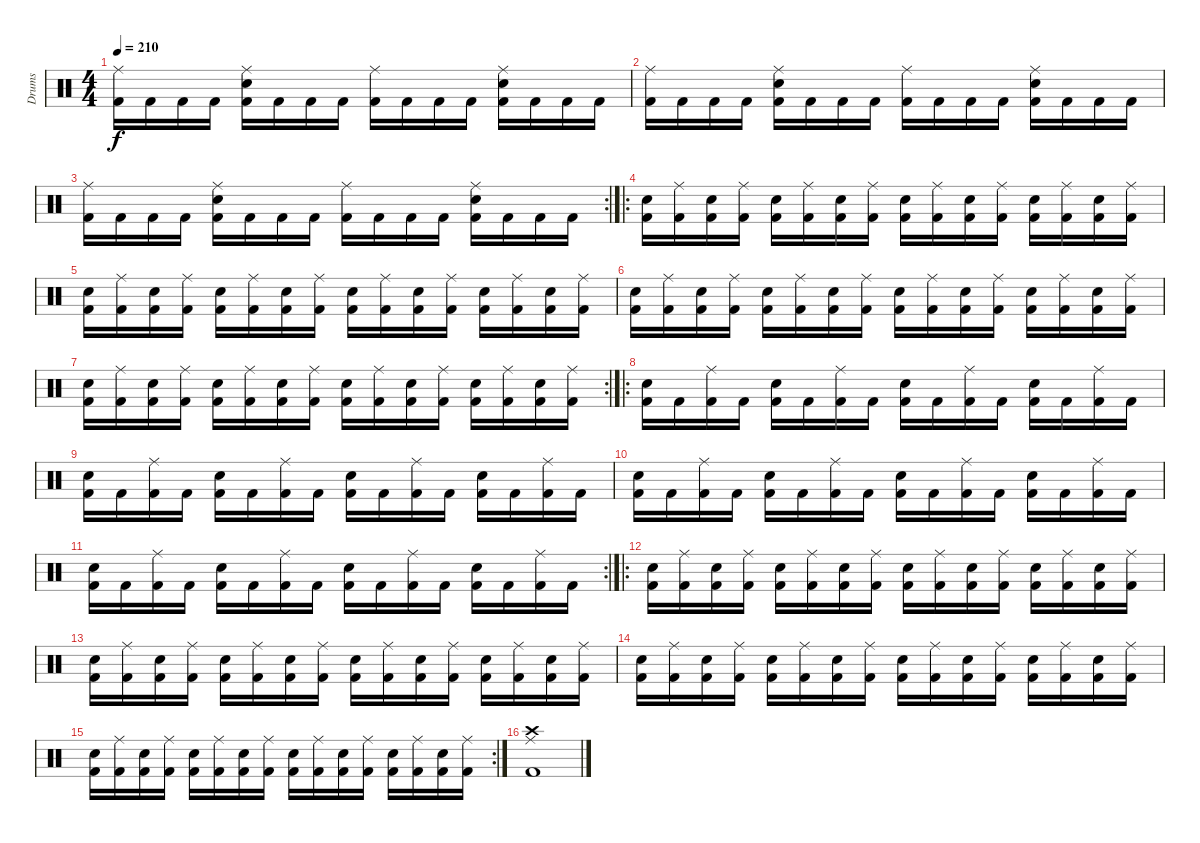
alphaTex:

\track ("Drums" "Drums") {instrument percussion}
\staff {score}
\articulation defaults
\ts (4 4)
\tempo 210
\clef neutral
\ks c
("Ride (middle)" "Kick (hit) 2").16{dy f} "Kick (hit) 2".16 "Kick (hit) 2".16 "Kick (hit) 2".16 ("Ride (middle)" "Electric Snare (hit)" "Kick (hit) 2").16 "Kick (hit) 2".16 "Kick (hit) 2".16 "Kick (hit) 2".16 ("Ride (middle)" "Kick (hit) 2").16 "Kick (hit) 2".16 "Kick (hit) 2".16 "Kick (hit) 2".16 ("Ride (middle)" "Electric Snare (hit)" "Kick (hit) 2").16 "Kick (hit) 2".16 "Kick (hit) 2".16 "Kick (hit) 2".16 |
("Ride (middle)" "Kick (hit) 2").16 "Kick (hit) 2".16 "Kick (hit) 2".16 "Kick (hit) 2".16 ("Ride (middle)" "Electric Snare (hit)" "Kick (hit) 2").16 "Kick (hit) 2".16 "Kick (hit) 2".16 "Kick (hit) 2".16 ("Ride (middle)" "Kick (hit) 2").16 "Kick (hit) 2".16 "Kick (hit) 2".16 "Kick (hit) 2".16 ("Ride (middle)" "Electric Snare (hit)" "Kick (hit) 2").16 "Kick (hit) 2".16 "Kick (hit) 2".16 "Kick (hit) 2".16 |
\rc 2
("Ride (middle)" "Kick (hit) 2").16 "Kick (hit) 2".16 "Kick (hit) 2".16 "Kick (hit) 2".16 ("Ride (middle)" "Electric Snare (hit)" "Kick (hit) 2").16 "Kick (hit) 2".16 "Kick (hit) 2".16 "Kick (hit) 2".16 ("Ride (middle)" "Kick (hit) 2").16 "Kick (hit) 2".16 "Kick (hit) 2".16 "Kick (hit) 2".16 ("Ride (middle)" "Electric Snare (hit)" "Kick (hit) 2").16 "Kick (hit) 2".16 "Kick (hit) 2".16 "Kick (hit) 2".16 |
\ro
("Electric Snare (hit)" "Kick (hit) 2").16 ("Ride (middle)" "Kick (hit) 2").16 ("Electric Snare (hit)" "Kick (hit) 2").16 ("Ride (middle)" "Kick (hit) 2").16 ("Electric Snare (hit)" "Kick (hit) 2").16 ("Ride (middle)" "Kick (hit) 2").16 ("Electric Snare (hit)" "Kick (hit) 2").16 ("Ride (middle)" "Kick (hit) 2").16 ("Electric Snare (hit)" "Kick (hit) 2").16 ("Ride (middle)" "Kick (hit) 2").16 ("Electric Snare (hit)" "Kick (hit) 2").16 ("Ride (middle)" "Kick (hit) 2").16 ("Electric Snare (hit)" "Kick (hit) 2").16 ("Ride (middle)" "Kick (hit) 2").16 ("Electric Snare (hit)" "Kick (hit) 2").16 ("Ride (middle)" "Kick (hit) 2").16 |
("Electric Snare (hit)" "Kick (hit) 2").16 ("Ride (middle)" "Kick (hit) 2").16 ("Electric Snare (hit)" "Kick (hit) 2").16 ("Ride (middle)" "Kick (hit) 2").16 ("Electric Snare (hit)" "Kick (hit) 2").16 ("Ride (middle)" "Kick (hit) 2").16 ("Electric Snare (hit)" "Kick (hit) 2").16 ("Ride (middle)" "Kick (hit) 2").16 ("Electric Snare (hit)" "Kick (hit) 2").16 ("Ride (middle)" "Kick (hit) 2").16 ("Electric Snare (hit)" "Kick (hit) 2").16 ("Ride (middle)" "Kick (hit) 2").16 ("Electric Snare (hit)" "Kick (hit) 2").16 ("Ride (middle)" "Kick (hit) 2").16 ("Electric Snare (hit)" "Kick (hit) 2").16 ("Ride (middle)" "Kick (hit) 2").16 |
("Electric Snare (hit)" "Kick (hit) 2").16 ("Ride (middle)" "Kick (hit) 2").16 ("Electric Snare (hit)" "Kick (hit) 2").16 ("Ride (middle)" "Kick (hit) 2").16 ("Electric Snare (hit)" "Kick (hit) 2").16 ("Ride (middle)" "Kick (hit) 2").16 ("Electric Snare (hit)" "Kick (hit) 2").16 ("Ride (middle)" "Kick (hit) 2").16 ("Electric Snare (hit)" "Kick (hit) 2").16 ("Ride (middle)" "Kick (hit) 2").16 ("Electric Snare (hit)" "Kick (hit) 2").16 ("Ride (middle)" "Kick (hit) 2").16 ("Electric Snare (hit)" "Kick (hit) 2").16 ("Ride (middle)" "Kick (hit) 2").16 ("Electric Snare (hit)" "Kick (hit) 2").16 ("Ride (middle)" "Kick (hit) 2").16 |
\rc 2
("Electric Snare (hit)" "Kick (hit) 2").16 ("Ride (middle)" "Kick (hit) 2").16 ("Electric Snare (hit)" "Kick (hit) 2").16 ("Ride (middle)" "Kick (hit) 2").16 ("Electric Snare (hit)" "Kick (hit) 2").16 ("Ride (middle)" "Kick (hit) 2").16 ("Electric Snare (hit)" "Kick (hit) 2").16 ("Ride (middle)" "Kick (hit) 2").16 ("Electric Snare (hit)" "Kick (hit) 2").16 ("Ride (middle)" "Kick (hit) 2").16 ("Electric Snare (hit)" "Kick (hit) 2").16 ("Ride (middle)" "Kick (hit) 2").16 ("Electric Snare (hit)" "Kick (hit) 2").16 ("Ride (middle)" "Kick (hit) 2").16 ("Electric Snare (hit)" "Kick (hit) 2").16 ("Ride (middle)" "Kick (hit) 2").16 |
\ro
("Electric Snare (hit)" "Kick (hit) 2").16 "Kick (hit) 2".16 ("Ride (middle)" "Kick (hit) 2").16 "Kick (hit) 2".16 ("Electric Snare (hit)" "Kick (hit) 2").16 "Kick (hit) 2".16 ("Ride (middle)" "Kick (hit) 2").16 "Kick (hit) 2".16 ("Electric Snare (hit)" "Kick (hit) 2").16 "Kick (hit) 2".16 ("Ride (middle)" "Kick (hit) 2").16 "Kick (hit) 2".16 ("Electric Snare (hit)" "Kick (hit) 2").16 "Kick (hit) 2".16 ("Ride (middle)" "Kick (hit) 2").16 "Kick (hit) 2".16 |
("Electric Snare (hit)" "Kick (hit) 2").16 "Kick (hit) 2".16 ("Ride (middle)" "Kick (hit) 2").16 "Kick (hit) 2".16 ("Electric Snare (hit)" "Kick (hit) 2").16 "Kick (hit) 2".16 ("Ride (middle)" "Kick (hit) 2").16 "Kick (hit) 2".16 ("Electric Snare (hit)" "Kick (hit) 2").16 "Kick (hit) 2".16 ("Ride (middle)" "Kick (hit) 2").16 "Kick (hit) 2".16 ("Electric Snare (hit)" "Kick (hit) 2").16 "Kick (hit) 2".16 ("Ride (middle)" "Kick (hit) 2").16 "Kick (hit) 2".16 |
("Electric Snare (hit)" "Kick (hit) 2").16 "Kick (hit) 2".16 ("Ride (middle)" "Kick (hit) 2").16 "Kick (hit) 2".16 ("Electric Snare (hit)" "Kick (hit) 2").16 "Kick (hit) 2".16 ("Ride (middle)" "Kick (hit) 2").16 "Kick (hit) 2".16 ("Electric Snare (hit)" "Kick (hit) 2").16 "Kick (hit) 2".16 ("Ride (middle)" "Kick (hit) 2").16 "Kick (hit) 2".16 ("Electric Snare (hit)" "Kick (hit) 2").16 "Kick (hit) 2".16 ("Ride (middle)" "Kick (hit) 2").16 "Kick (hit) 2".16 |
\rc 2
("Electric Snare (hit)" "Kick (hit) 2").16 "Kick (hit) 2".16 ("Ride (middle)" "Kick (hit) 2").16 "Kick (hit) 2".16 ("Electric Snare (hit)" "Kick (hit) 2").16 "Kick (hit) 2".16 ("Ride (middle)" "Kick (hit) 2").16 "Kick (hit) 2".16 ("Electric Snare (hit)" "Kick (hit) 2").16 "Kick (hit) 2".16 ("Ride (middle)" "Kick (hit) 2").16 "Kick (hit) 2".16 ("Electric Snare (hit)" "Kick (hit) 2").16 "Kick (hit) 2".16 ("Ride (middle)" "Kick (hit) 2").16 "Kick (hit) 2".16 |
\ro
("Electric Snare (hit)" "Kick (hit) 2").16 ("Ride (middle)" "Kick (hit) 2").16 ("Electric Snare (hit)" "Kick (hit) 2").16 ("Ride (middle)" "Kick (hit) 2").16 ("Electric Snare (hit)" "Kick (hit) 2").16 ("Ride (middle)" "Kick (hit) 2").16 ("Electric Snare (hit)" "Kick (hit) 2").16 ("Ride (middle)" "Kick (hit) 2").16 ("Electric Snare (hit)" "Kick (hit) 2").16 ("Ride (middle)" "Kick (hit) 2").16 ("Electric Snare (hit)" "Kick (hit) 2").16 ("Ride (middle)" "Kick (hit) 2").16 ("Electric Snare (hit)" "Kick (hit) 2").16 ("Ride (middle)" "Kick (hit) 2").16 ("Electric Snare (hit)" "Kick (hit) 2").16 ("Ride (middle)" "Kick (hit) 2").16 |
("Electric Snare (hit)" "Kick (hit) 2").16 ("Ride (middle)" "Kick (hit) 2").16 ("Electric Snare (hit)" "Kick (hit) 2").16 ("Ride (middle)" "Kick (hit) 2").16 ("Electric Snare (hit)" "Kick (hit) 2").16 ("Ride (middle)" "Kick (hit) 2").16 ("Electric Snare (hit)" "Kick (hit) 2").16 ("Ride (middle)" "Kick (hit) 2").16 ("Electric Snare (hit)" "Kick (hit) 2").16 ("Ride (middle)" "Kick (hit) 2").16 ("Electric Snare (hit)" "Kick (hit) 2").16 ("Ride (middle)" "Kick (hit) 2").16 ("Electric Snare (hit)" "Kick (hit) 2").16 ("Ride (middle)" "Kick (hit) 2").16 ("Electric Snare (hit)" "Kick (hit) 2").16 ("Ride (middle)" "Kick (hit) 2").16 |
("Electric Snare (hit)" "Kick (hit) 2").16 ("Ride (middle)" "Kick (hit) 2").16 ("Electric Snare (hit)" "Kick (hit) 2").16 ("Ride (middle)" "Kick (hit) 2").16 ("Electric Snare (hit)" "Kick (hit) 2").16 ("Ride (middle)" "Kick (hit) 2").16 ("Electric Snare (hit)" "Kick (hit) 2").16 ("Ride (middle)" "Kick (hit) 2").16 ("Electric Snare (hit)" "Kick (hit) 2").16 ("Ride (middle)" "Kick (hit) 2").16 ("Electric Snare (hit)" "Kick (hit) 2").16 ("Ride (middle)" "Kick (hit) 2").16 ("Electric Snare (hit)" "Kick (hit) 2").16 ("Ride (middle)" "Kick (hit) 2").16 ("Electric Snare (hit)" "Kick (hit) 2").16 ("Ride (middle)" "Kick (hit) 2").16 |
\rc 2
("Electric Snare (hit)" "Kick (hit) 2").16 ("Ride (middle)" "Kick (hit) 2").16 ("Electric Snare (hit)" "Kick (hit) 2").16 ("Ride (middle)" "Kick (hit) 2").16 ("Electric Snare (hit)" "Kick (hit) 2").16 ("Ride (middle)" "Kick (hit) 2").16 ("Electric Snare (hit)" "Kick (hit) 2").16 ("Ride (middle)" "Kick (hit) 2").16 ("Electric Snare (hit)" "Kick (hit) 2").16 ("Ride (middle)" "Kick (hit) 2").16 ("Electric Snare (hit)" "Kick (hit) 2").16 ("Ride (middle)" "Kick (hit) 2").16 ("Electric Snare (hit)" "Kick (hit) 2").16 ("Ride (middle)" "Kick (hit) 2").16 ("Electric Snare (hit)" "Kick (hit) 2").16 ("Ride (middle)" "Kick (hit) 2").16 |
("Ride (middle)" "Crash high (hit)" "Kick (hit) 2").1
